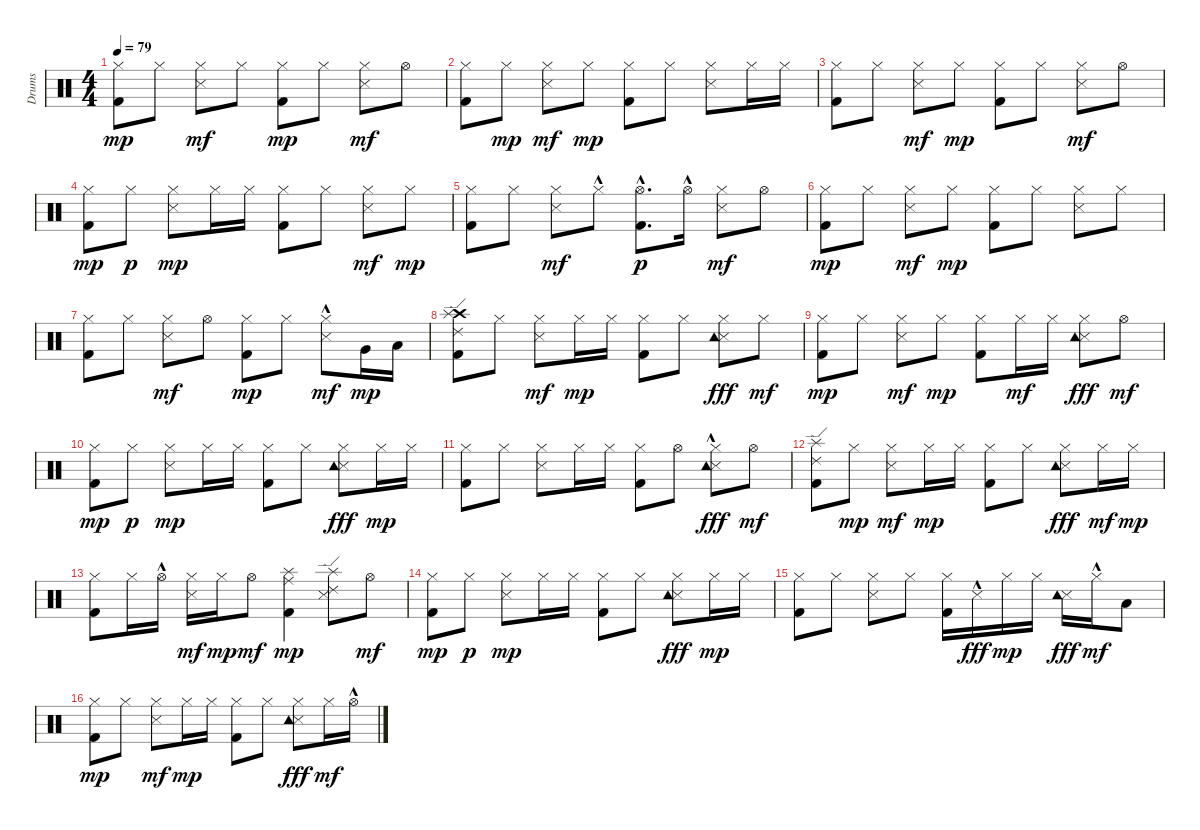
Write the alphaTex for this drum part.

\track ("Drums" "Drums") {instrument percussion}
\staff {score}
\articulation defaults
\ts (4 4)
\tempo 79
\clef neutral
\ks c
("Kick (hit) 2" "Hi-Hat (closed)").8{dy mp} "Hi-Hat (closed)".8 ("Snare (side stick) 3" "Hi-Hat (closed)").8{dy mf} "Hi-Hat (closed)".8 ("Kick (hit) 2" "Hi-Hat (closed)").8{dy mp} "Hi-Hat (closed)".8 ("Snare (side stick) 3" "Hi-Hat (closed)").8{dy mf} "Hi-Hat (open)".8 |
("Kick (hit) 2" "Hi-Hat (closed)").8 "Hi-Hat (closed)".8{dy mp} ("Snare (side stick) 3" "Hi-Hat (closed)").8{dy mf} "Hi-Hat (closed)".8{dy mp} ("Kick (hit) 2" "Hi-Hat (closed)").8 "Hi-Hat (closed)".8 ("Snare (side stick) 3" "Hi-Hat (closed)").8 "Hi-Hat (closed)".16 "Hi-Hat (closed)".16 |
("Kick (hit) 2" "Hi-Hat (closed)").8 "Hi-Hat (closed)".8 ("Snare (side stick) 3" "Hi-Hat (closed)").8{dy mf} "Hi-Hat (closed)".8{dy mp} ("Kick (hit) 2" "Hi-Hat (closed)").8 "Hi-Hat (closed)".8 ("Snare (side stick) 3" "Hi-Hat (closed)").8{dy mf} "Hi-Hat (open)".8 |
("Kick (hit) 2" "Hi-Hat (closed)").8{dy mp} "Hi-Hat (closed)".8{dy p} ("Snare (side stick) 3" "Hi-Hat (closed)").8{dy mp} "Hi-Hat (closed)".16 "Hi-Hat (closed)".16 ("Kick (hit) 2" "Hi-Hat (closed)").8 "Hi-Hat (closed)".8 ("Snare (side stick) 3" "Hi-Hat (closed)").8{dy mf} "Hi-Hat (closed)".8{dy mp} |
("Kick (hit) 2" "Hi-Hat (closed)").8 "Hi-Hat (closed)".8 ("Snare (side stick) 3" "Hi-Hat (closed)").8{dy mf} "Hi-Hat (closed)"{hac}.8 ("Kick (hit) 2" "Hi-Hat (open)"{hac}).8{d dy p} "Hi-Hat (open)"{hac}.16 ("Snare (side stick) 3" "Hi-Hat (closed)").8{dy mf} "Hi-Hat (open)".8 |
("Kick (hit) 2" "Hi-Hat (closed)").8{dy mp} "Hi-Hat (closed)".8 ("Snare (side stick) 3" "Hi-Hat (closed)").8{dy mf} "Hi-Hat (closed)".8{dy mp} ("Kick (hit) 2" "Hi-Hat (closed)").8 "Hi-Hat (closed)".8 ("Snare (side stick) 3" "Hi-Hat (closed)").8 "Hi-Hat (closed)".8 |
("Kick (hit) 2" "Hi-Hat (closed)").8 "Hi-Hat (closed)".8 ("Snare (side stick) 3" "Hi-Hat (closed)").8{dy mf} "Hi-Hat (open)".8 ("Kick (hit) 2" "Hi-Hat (closed)").8{dy mp} "Hi-Hat (closed)".8 ("Snare (side stick) 3" "Hi-Hat (closed)"{hac}).8{dy mf} "Very Low Tom (hit)".16{dy mp} "Low Floor Tom (hit)".16 |
("Kick (hit) 2" "Crash high (hit)" "Splash (hit)" "Ride (edge) 2").8 "Hi-Hat (closed)".8 ("Snare (side stick) 3" "Hi-Hat (closed)").8{dy mf} "Hi-Hat (closed)".16{dy mp} "Hi-Hat (closed)".16 ("Kick (hit) 2" "Hi-Hat (closed)").8 "Hi-Hat (closed)".8 ("Snare (side stick) 3" "Hi-Hat (closed)" "Tambourine (hit)").8{dy fff} "Hi-Hat (closed)".8{dy mf} |
("Kick (hit) 2" "Hi-Hat (closed)").8{dy mp} "Hi-Hat (closed)".8 ("Snare (side stick) 3" "Hi-Hat (closed)").8{dy mf} "Hi-Hat (closed)".8{dy mp} ("Kick (hit) 2" "Hi-Hat (closed)").8 "Hi-Hat (closed)".16{dy mf} "Hi-Hat (closed)".16 ("Snare (side stick) 3" "Hi-Hat (closed)" "Tambourine (hit)").8{dy fff} "Hi-Hat (open)".8{dy mf} |
("Kick (hit) 2" "Hi-Hat (closed)").8{dy mp} "Hi-Hat (closed)".8{dy p} ("Snare (side stick) 3" "Hi-Hat (closed)").8{dy mp} "Hi-Hat (closed)".16 "Hi-Hat (closed)".16 ("Kick (hit) 2" "Hi-Hat (closed)").8 "Hi-Hat (closed)".8 ("Snare (side stick) 3" "Hi-Hat (closed)" "Tambourine (hit)").8{dy fff} "Hi-Hat (closed)".16{dy mp} "Hi-Hat (closed)".16 |
("Kick (hit) 2" "Hi-Hat (closed)").8 "Hi-Hat (closed)".8 ("Snare (side stick) 3" "Hi-Hat (closed)").8 "Hi-Hat (closed)".16 "Hi-Hat (closed)".16 ("Kick (hit) 2" "Hi-Hat (closed)").8 "Hi-Hat (open)".8 ("Snare (side stick) 3" "Hi-Hat (closed)"{hac} "Tambourine (hit)").8{dy fff} "Hi-Hat (open)".8{dy mf} |
("Kick (hit) 2" "Splash (hit)" "Ride (edge) 2").8 "Hi-Hat (closed)".8{dy mp} ("Snare (side stick) 3" "Hi-Hat (closed)").8{dy mf} "Hi-Hat (closed)".16{dy mp} "Hi-Hat (closed)".16 ("Kick (hit) 2" "Hi-Hat (closed)").8 "Hi-Hat (closed)".8 ("Snare (side stick) 3" "Hi-Hat (closed)" "Tambourine (hit)").8{dy fff} "Hi-Hat (closed)".16{dy mf} "Hi-Hat (closed)".16{dy mp} |
("Kick (hit) 2" "Hi-Hat (closed)").8 "Hi-Hat (closed)".16 "Hi-Hat (open)"{hac}.16 ("Snare (side stick) 3" "Hi-Hat (closed)").16{dy mf} "Hi-Hat (closed)".16{dy mp} "Hi-Hat (open)".8{dy mf} ("Kick (hit) 2" "Ride (middle)" "Splash (hit)").4{dy mp} ("Snare (side stick) 3" "Splash (hit)" "Ride (edge) 2").8 "Hi-Hat (open)".8{dy mf} |
("Kick (hit) 2" "Hi-Hat (closed)").8{dy mp} "Hi-Hat (closed)".8{dy p} ("Snare (side stick) 3" "Hi-Hat (closed)").8{dy mp} "Hi-Hat (closed)".16 "Hi-Hat (closed)".16 ("Kick (hit) 2" "Hi-Hat (closed)").8 "Hi-Hat (closed)".8 ("Snare (side stick) 3" "Hi-Hat (closed)" "Tambourine (hit)").8{dy fff} "Hi-Hat (closed)".16{dy mp} "Hi-Hat (closed)".16 |
("Kick (hit) 2" "Hi-Hat (closed)").8 "Hi-Hat (closed)".8 ("Snare (side stick) 3" "Hi-Hat (closed)").8 "Hi-Hat (closed)".8 ("Kick (hit) 2" "Hi-Hat (closed)").16 "Snare (side stick) 3"{hac}.16{dy fff} "Hi-Hat (closed)".16{dy mp} "Hi-Hat (closed)".16 ("Snare (side stick) 3" "Tambourine (hit)").16{dy fff} "Hi-Hat (closed)"{hac}.16{dy mf} "Low Floor Tom (hit)".8 |
("Kick (hit) 2" "Hi-Hat (closed)").8{dy mp} "Hi-Hat (closed)".8 ("Snare (side stick) 3" "Hi-Hat (closed)").8{dy mf} "Hi-Hat (closed)".16{dy mp} "Hi-Hat (closed)".16 ("Kick (hit) 2" "Hi-Hat (closed)").8 "Hi-Hat (closed)".8 ("Snare (side stick) 3" "Hi-Hat (closed)" "Tambourine (hit)").8{dy fff} "Hi-Hat (closed)".16{dy mf} "Hi-Hat (open)"{hac}.16
